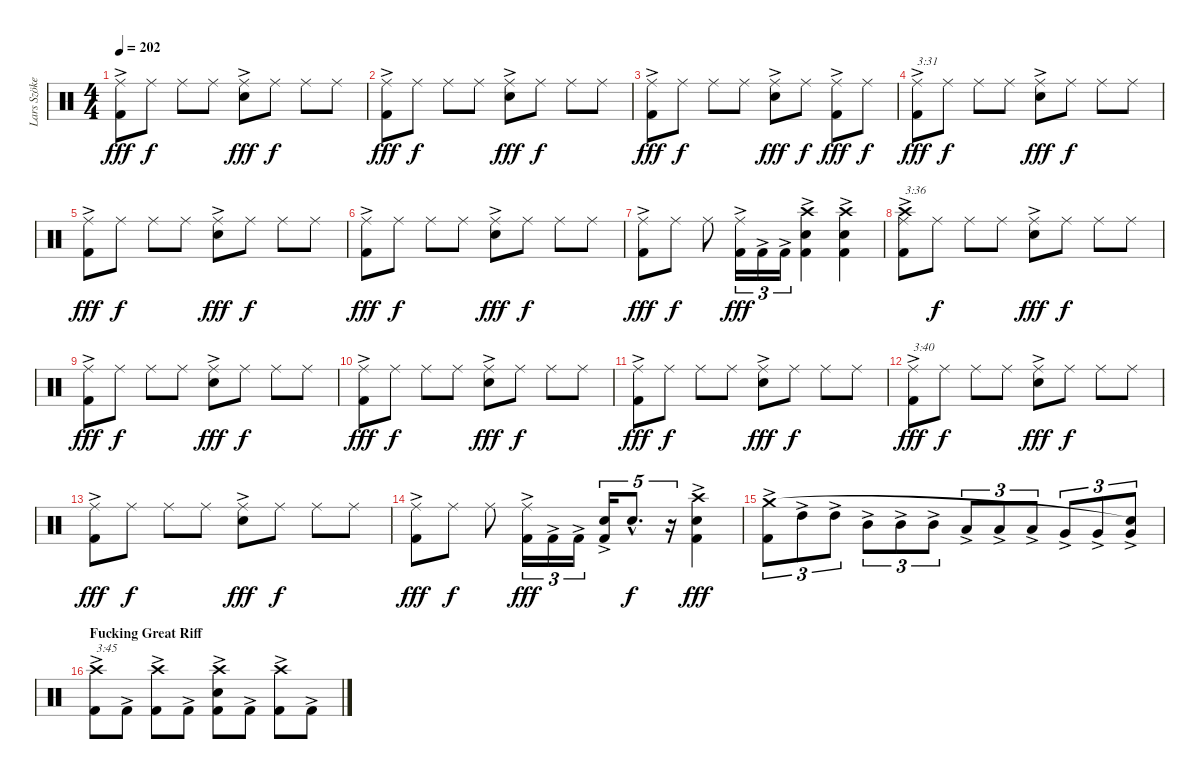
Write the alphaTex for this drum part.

\track ("Lars Szöke" "Lars Szöke") {instrument percussion}
\staff {score}
\articulation defaults
\ts (4 4)
\tempo 202
\clef neutral
\ks c
("Kick (hit) 2"{ac} "Ride (middle)").8{dy fff} "Ride (middle)".8{dy f} "Ride (middle)".8 "Ride (middle)".8 ("Snare (hit) 2"{ac} "Ride (middle)").8{dy fff} "Ride (middle)".8{dy f} "Ride (middle)".8 "Ride (middle)".8 |
("Kick (hit) 2"{ac} "Ride (middle)").8{dy fff} "Ride (middle)".8{dy f} "Ride (middle)".8 "Ride (middle)".8 ("Snare (hit) 2"{ac} "Ride (middle)").8{dy fff} "Ride (middle)".8{dy f} "Ride (middle)".8 "Ride (middle)".8 |
("Kick (hit) 2"{ac} "Ride (middle)").8{dy fff} "Ride (middle)".8{dy f} "Ride (middle)".8 "Ride (middle)".8 ("Snare (hit) 2"{ac} "Ride (middle)").8{dy fff} "Ride (middle)".8{dy f} ("Kick (hit) 2"{ac} "Ride (middle)").8{dy fff} "Ride (middle)".8{dy f} |
("Kick (hit) 2"{ac} "Ride (middle)").8{txt "3:31" dy fff} "Ride (middle)".8{dy f} "Ride (middle)".8 "Ride (middle)".8 ("Snare (hit) 2"{ac} "Ride (middle)").8{dy fff} "Ride (middle)".8{dy f} "Ride (middle)".8 "Ride (middle)".8 |
("Kick (hit) 2"{ac} "Ride (middle)").8{dy fff} "Ride (middle)".8{dy f} "Ride (middle)".8 "Ride (middle)".8 ("Snare (hit) 2"{ac} "Ride (middle)").8{dy fff} "Ride (middle)".8{dy f} "Ride (middle)".8 "Ride (middle)".8 |
("Kick (hit) 2"{ac} "Ride (middle)").8{dy fff} "Ride (middle)".8{dy f} "Ride (middle)".8 "Ride (middle)".8 ("Snare (hit) 2"{ac} "Ride (middle)").8{dy fff} "Ride (middle)".8{dy f} "Ride (middle)".8 "Ride (middle)".8 |
("Kick (hit) 2"{ac} "Ride (middle)").8{dy fff} "Ride (middle)".8{dy f} "Ride (middle)".8 ("Kick (hit) 2"{ac} "Ride (middle)").16{tu (3 2) dy fff} "Kick (hit) 2"{ac}.16{tu (3 2)} "Kick (hit) 2"{ac}.16{tu (3 2)} ("Kick (hit) 2"{ac} "Snare (hit) 2"{ac} "Crash high (hit)"{ac}).4 ("Kick (hit) 2"{ac} "Snare (hit) 2" "Crash high (hit)"{ac}).4 |
("Kick (hit) 2"{ac} "Ride (middle)" "Crash high (hit)"{ac}).8{txt "3:36"} "Ride (middle)".8{dy f} "Ride (middle)".8 "Ride (middle)".8 ("Snare (hit) 2"{ac} "Ride (middle)").8{dy fff} "Ride (middle)".8{dy f} "Ride (middle)".8 "Ride (middle)".8 |
("Kick (hit) 2"{ac} "Ride (middle)").8{dy fff} "Ride (middle)".8{dy f} "Ride (middle)".8 "Ride (middle)".8 ("Snare (hit) 2"{ac} "Ride (middle)").8{dy fff} "Ride (middle)".8{dy f} "Ride (middle)".8 "Ride (middle)".8 |
("Kick (hit) 2"{ac} "Ride (middle)").8{dy fff} "Ride (middle)".8{dy f} "Ride (middle)".8 "Ride (middle)".8 ("Snare (hit) 2"{ac} "Ride (middle)").8{dy fff} "Ride (middle)".8{dy f} "Ride (middle)".8 "Ride (middle)".8 |
("Kick (hit) 2"{ac} "Ride (middle)").8{dy fff} "Ride (middle)".8{dy f} "Ride (middle)".8 "Ride (middle)".8 ("Snare (hit) 2"{ac} "Ride (middle)").8{dy fff} "Ride (middle)".8{dy f} "Ride (middle)".8 "Ride (middle)".8 |
("Kick (hit) 2"{ac} "Ride (middle)").8{txt "3:40" dy fff} "Ride (middle)".8{dy f} "Ride (middle)".8 "Ride (middle)".8 ("Snare (hit) 2"{ac} "Ride (middle)").8{dy fff} "Ride (middle)".8{dy f} "Ride (middle)".8 "Ride (middle)".8 |
("Kick (hit) 2"{ac} "Ride (middle)").8{dy fff} "Ride (middle)".8{dy f} "Ride (middle)".8 "Ride (middle)".8 ("Snare (hit) 2"{ac} "Ride (middle)").8{dy fff} "Ride (middle)".8{dy f} "Ride (middle)".8 "Ride (middle)".8 |
("Kick (hit) 2"{ac} "Ride (middle)").8{dy fff} "Ride (middle)".8{dy f} "Ride (middle)".8 ("Kick (hit) 2"{ac} "Ride (middle)").16{tu (3 2) dy fff} "Kick (hit) 2"{ac}.16{tu (3 2)} "Kick (hit) 2"{ac}.16{tu (3 2)} ("Kick (hit) 2"{ac} "Snare (hit) 2"{ac}).16{tu (5 4)} "Snare (hit) 2"{hac}.8{d tu (5 4) dy f} r.16{tu (5 4)} ("Kick (hit) 2"{ac} "Snare (hit) 2"{ac} "Crash high (hit)").4{dy fff} |
("Kick (hit) 2"{ac} "Crash medium (hit)").8{tu (3 2)} "High Tom (hit)"{ac}.8{tu (3 2)} "High Tom (hit)"{ac}.8{tu (3 2)} "Mid Tom (hit)"{ac}.8{tu (3 2)} "Mid Tom (hit)"{ac}.8{tu (3 2)} "Mid Tom (hit)"{ac}.8{tu (3 2)} "Low Tom (hit)"{ac}.8{tu (3 2)} "Low Tom (hit)"{ac}.8{tu (3 2)} "Low Tom (hit)"{ac}.8{tu (3 2)} "Very Low Tom (hit)"{ac}.8{tu (3 2)} "Very Low Tom (hit)"{ac}.8{tu (3 2)} ("Very Low Tom (hit)"{ac} "Snare (hit)"{t}).8{tu (3 2)} |
\section ("" "Fucking Great Riff")
("Kick (hit) 2"{ac} "Crash high (hit)"{ac}).8{txt "3:45"} "Kick (hit) 2"{ac}.8 ("Kick (hit) 2"{ac} "Crash high (hit)").8 "Kick (hit) 2"{ac}.8 ("Kick (hit) 2"{ac} "Snare (hit) 2" "Crash high (hit)").8 "Kick (hit) 2"{ac}.8 ("Kick (hit) 2"{ac} "Crash high (hit)").8 "Kick (hit) 2"{ac}.8
